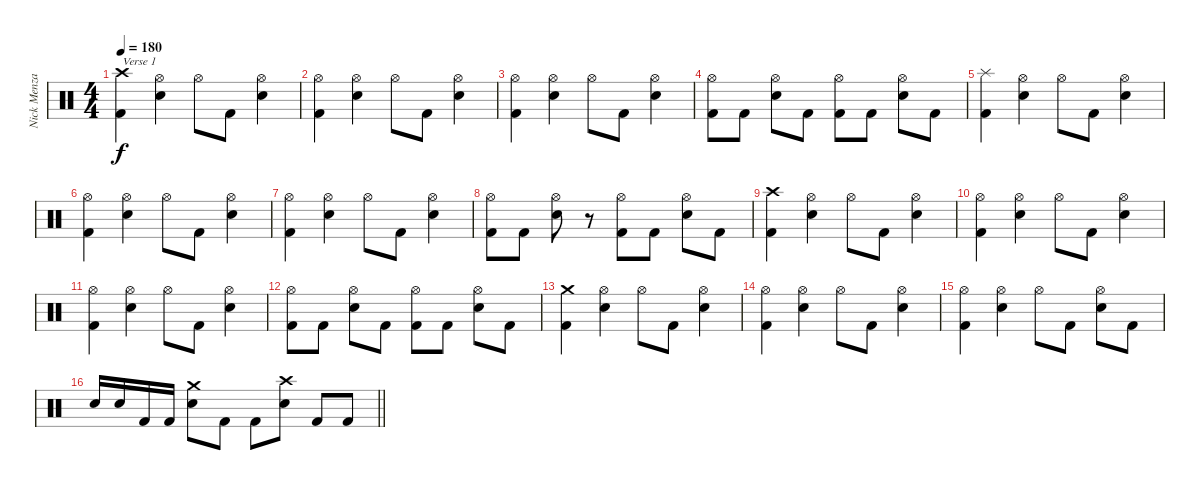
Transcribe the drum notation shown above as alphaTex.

\track ("Nick Menza" "Nick Menza") {instrument percussion}
\staff {score}
\articulation defaults
\ts (4 4)
\tempo 180
\clef neutral
\ks c
("Crash high (hit)" "Kick (hit) 2").4{txt "Verse 1" dy f} ("Hi-Hat (open)" "Snare (hit) 2").4 "Hi-Hat (open)".8 "Kick (hit) 2".8 ("Hi-Hat (open)" "Snare (hit) 2").4 |
("Hi-Hat (open)" "Kick (hit) 2").4 ("Hi-Hat (open)" "Snare (hit) 2").4 "Hi-Hat (open)".8 "Kick (hit) 2".8 ("Hi-Hat (open)" "Snare (hit) 2").4 |
("Hi-Hat (open)" "Kick (hit) 2").4 ("Hi-Hat (open)" "Snare (hit) 2").4 "Hi-Hat (open)".8 "Kick (hit) 2".8 ("Hi-Hat (open)" "Snare (hit) 2").4 |
("Hi-Hat (open)" "Kick (hit) 2").8 "Kick (hit) 2".8 ("Hi-Hat (open)" "Snare (hit) 2").8 "Kick (hit) 2".8 ("Hi-Hat (open)" "Kick (hit) 2").8 "Kick (hit) 2".8 ("Hi-Hat (open)" "Snare (hit) 2").8 "Kick (hit) 2".8 |
("Splash (hit)" "Kick (hit) 2").4 ("Hi-Hat (open)" "Snare (hit) 2").4 "Hi-Hat (open)".8 "Kick (hit) 2".8 ("Hi-Hat (open)" "Snare (hit) 2").4 |
("Hi-Hat (open)" "Kick (hit) 2").4 ("Hi-Hat (open)" "Snare (hit) 2").4 "Hi-Hat (open)".8 "Kick (hit) 2".8 ("Hi-Hat (open)" "Snare (hit) 2").4 |
("Hi-Hat (open)" "Kick (hit) 2").4 ("Hi-Hat (open)" "Snare (hit) 2").4 "Hi-Hat (open)".8 "Kick (hit) 2".8 ("Hi-Hat (open)" "Snare (hit) 2").4 |
("Hi-Hat (open)" "Kick (hit) 2").8 "Kick (hit) 2".8 ("Hi-Hat (open)" "Snare (hit) 2").8 r.8 ("Hi-Hat (open)" "Kick (hit) 2").8 "Kick (hit) 2".8 ("Hi-Hat (open)" "Snare (hit) 2").8 "Kick (hit) 2".8 |
("Crash high (hit)" "Kick (hit) 2").4 ("Hi-Hat (open)" "Snare (hit) 2").4 "Hi-Hat (open)".8 "Kick (hit) 2".8 ("Hi-Hat (open)" "Snare (hit) 2").4 |
("Hi-Hat (open)" "Kick (hit) 2").4 ("Hi-Hat (open)" "Snare (hit) 2").4 "Hi-Hat (open)".8 "Kick (hit) 2".8 ("Hi-Hat (open)" "Snare (hit) 2").4 |
("Hi-Hat (open)" "Kick (hit) 2").4 ("Hi-Hat (open)" "Snare (hit) 2").4 "Hi-Hat (open)".8 "Kick (hit) 2".8 ("Hi-Hat (open)" "Snare (hit) 2").4 |
("Hi-Hat (open)" "Kick (hit) 2").8 "Kick (hit) 2".8 ("Hi-Hat (open)" "Snare (hit) 2").8 "Kick (hit) 2".8 ("Hi-Hat (open)" "Kick (hit) 2").8 "Kick (hit) 2".8 ("Hi-Hat (open)" "Snare (hit) 2").8 "Kick (hit) 2".8 |
("Crash medium (hit)" "Kick (hit) 2").4 ("Hi-Hat (open)" "Snare (hit) 2").4 "Hi-Hat (open)".8 "Kick (hit) 2".8 ("Hi-Hat (open)" "Snare (hit) 2").4 |
("Hi-Hat (open)" "Kick (hit) 2").4 ("Hi-Hat (open)" "Snare (hit) 2").4 "Hi-Hat (open)".8 "Kick (hit) 2".8 ("Hi-Hat (open)" "Snare (hit) 2").4 |
("Hi-Hat (open)" "Kick (hit) 2").4 ("Hi-Hat (open)" "Snare (hit) 2").4 "Hi-Hat (open)".8 "Kick (hit) 2".8 ("Hi-Hat (open)" "Snare (hit) 2").8 "Kick (hit) 2".8 |
\barLineRight lightlight "Snare (hit) 2".16 "Snare (hit) 2".16 "Kick (hit) 2".16 "Kick (hit) 2".16
("Crash medium (hit)" "Snare (hit) 2").8 "Kick (hit) 2".8 "Kick (hit) 2".8 ("Crash high (hit)" "Snare (hit) 2").8 "Kick (hit) 2".8 "Kick (hit) 2".8
